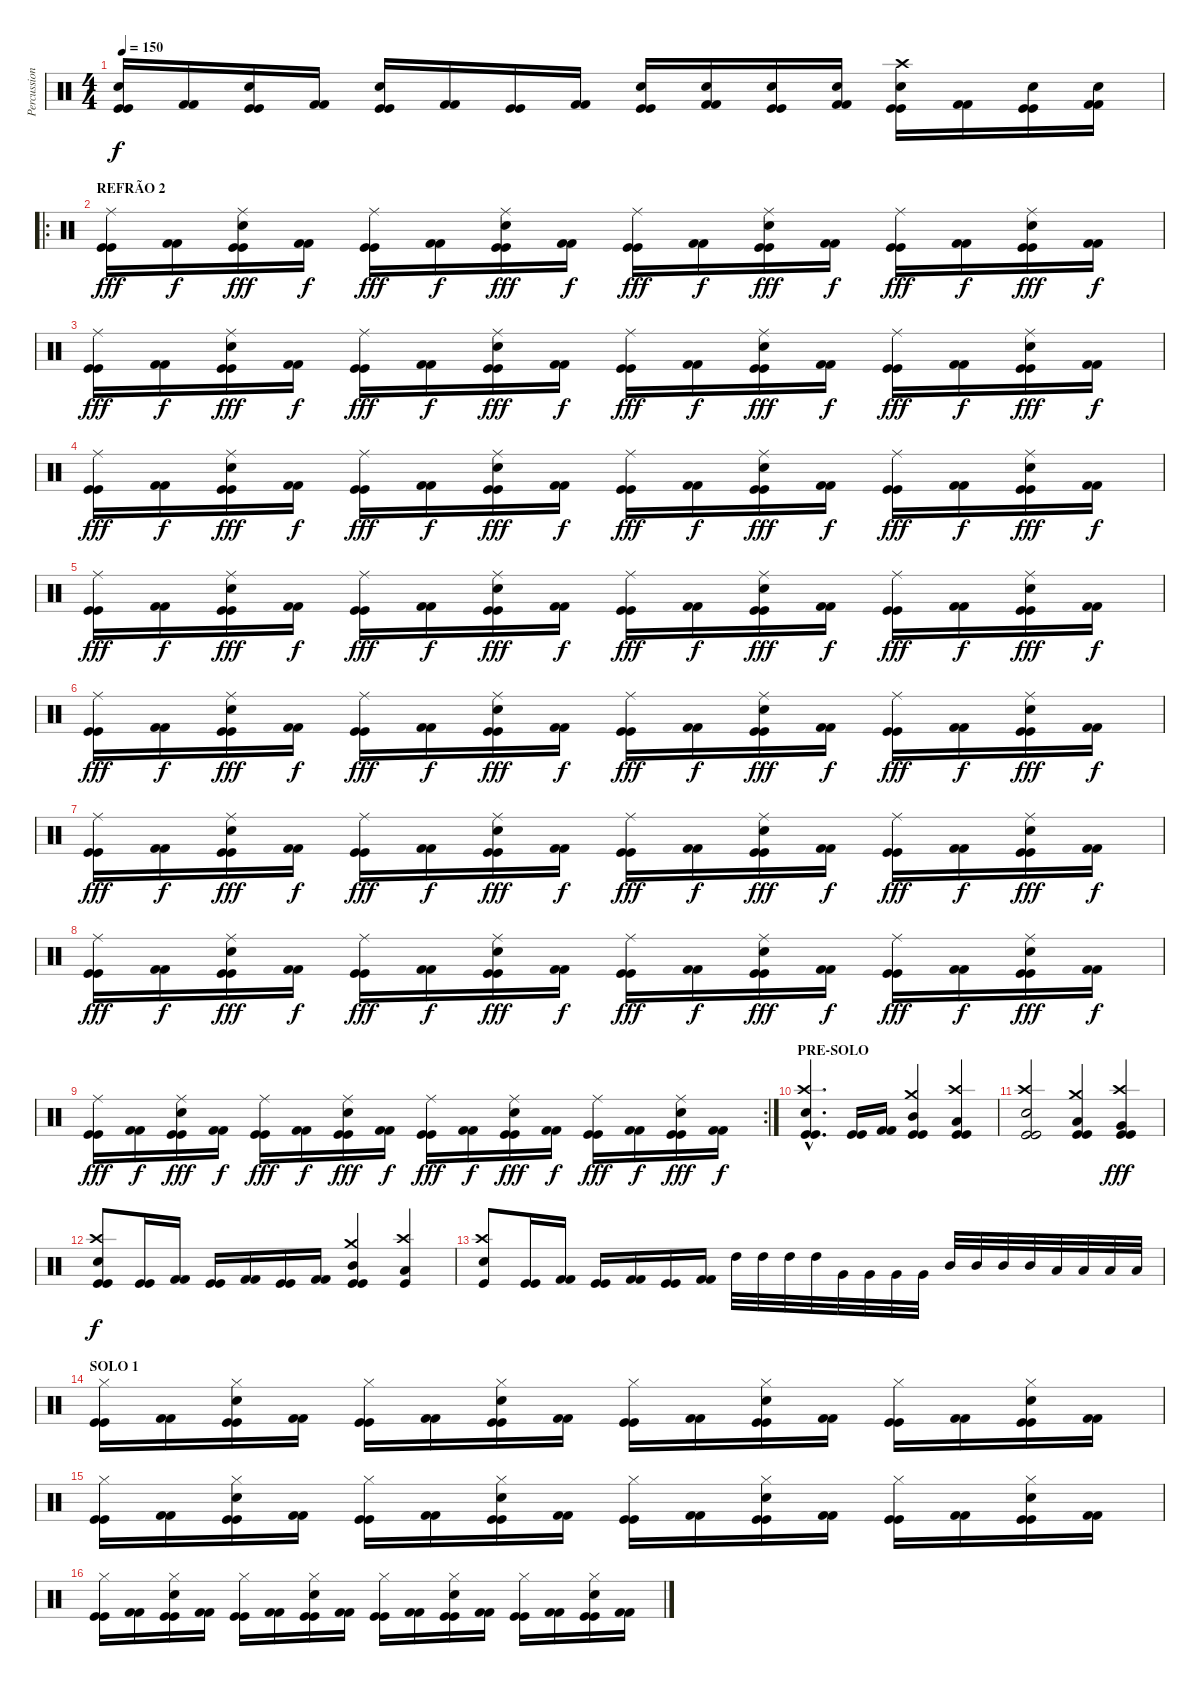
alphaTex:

\track ("Percussion" "Percussion") {instrument percussion}
\staff {score}
\articulation defaults
\ts (4 4)
\tempo 150
\clef neutral
\ks c
("Electric Snare (hit)" "Kick (hit)" "Kick (hit)").16{dy f} ("Kick (hit) 2" "Kick (hit) 2").16 ("Electric Snare (hit)" "Kick (hit)" "Kick (hit)").16 ("Kick (hit) 2" "Kick (hit) 2").16 ("Electric Snare (hit)" "Kick (hit)" "Kick (hit)").16 ("Kick (hit) 2" "Kick (hit) 2").16 ("Kick (hit)" "Kick (hit)").16 ("Kick (hit) 2" "Kick (hit) 2").16 ("Electric Snare (hit)" "Kick (hit)" "Kick (hit)").16 ("Electric Snare (hit)" "Kick (hit) 2" "Kick (hit) 2").16 ("Electric Snare (hit)" "Kick (hit)" "Kick (hit)").16 ("Electric Snare (hit)" "Kick (hit) 2" "Kick (hit) 2").16 ("Crash high (hit)" "Electric Snare (hit)" "Kick (hit)" "Kick (hit)").16 ("Kick (hit) 2" "Kick (hit) 2").16 ("Electric Snare (hit)" "Kick (hit)" "Kick (hit)").16 ("Electric Snare (hit)" "Kick (hit) 2" "Kick (hit) 2").16 |
\ro
\section ("" "REFRÃO 2")
("Ride (middle)" "Kick (hit)" "Kick (hit)").16{dy fff} ("Kick (hit) 2" "Kick (hit) 2").16{dy f} ("Ride (middle)" "Electric Snare (hit)" "Kick (hit)" "Kick (hit)").16{dy fff} ("Kick (hit) 2" "Kick (hit) 2").16{dy f} ("Ride (middle)" "Kick (hit)" "Kick (hit)").16{dy fff} ("Kick (hit) 2" "Kick (hit) 2").16{dy f} ("Ride (middle)" "Electric Snare (hit)" "Kick (hit)" "Kick (hit)").16{dy fff} ("Kick (hit) 2" "Kick (hit) 2").16{dy f} ("Ride (middle)" "Kick (hit)" "Kick (hit)").16{dy fff} ("Kick (hit) 2" "Kick (hit) 2").16{dy f} ("Ride (middle)" "Electric Snare (hit)" "Kick (hit)" "Kick (hit)").16{dy fff} ("Kick (hit) 2" "Kick (hit) 2").16{dy f} ("Ride (middle)" "Kick (hit)" "Kick (hit)").16{dy fff} ("Kick (hit) 2" "Kick (hit) 2").16{dy f} ("Ride (middle)" "Electric Snare (hit)" "Kick (hit)" "Kick (hit)").16{dy fff} ("Kick (hit) 2" "Kick (hit) 2").16{dy f} |
("Ride (middle)" "Kick (hit)" "Kick (hit)").16{dy fff} ("Kick (hit) 2" "Kick (hit) 2").16{dy f} ("Ride (middle)" "Electric Snare (hit)" "Kick (hit)" "Kick (hit)").16{dy fff} ("Kick (hit) 2" "Kick (hit) 2").16{dy f} ("Ride (middle)" "Kick (hit)" "Kick (hit)").16{dy fff} ("Kick (hit) 2" "Kick (hit) 2").16{dy f} ("Ride (middle)" "Electric Snare (hit)" "Kick (hit)" "Kick (hit)").16{dy fff} ("Kick (hit) 2" "Kick (hit) 2").16{dy f} ("Ride (middle)" "Kick (hit)" "Kick (hit)").16{dy fff} ("Kick (hit) 2" "Kick (hit) 2").16{dy f} ("Ride (middle)" "Electric Snare (hit)" "Kick (hit)" "Kick (hit)").16{dy fff} ("Kick (hit) 2" "Kick (hit) 2").16{dy f} ("Ride (middle)" "Kick (hit)" "Kick (hit)").16{dy fff} ("Kick (hit) 2" "Kick (hit) 2").16{dy f} ("Ride (middle)" "Electric Snare (hit)" "Kick (hit)" "Kick (hit)").16{dy fff} ("Kick (hit) 2" "Kick (hit) 2").16{dy f} |
("Ride (middle)" "Kick (hit)" "Kick (hit)").16{dy fff} ("Kick (hit) 2" "Kick (hit) 2").16{dy f} ("Ride (middle)" "Electric Snare (hit)" "Kick (hit)" "Kick (hit)").16{dy fff} ("Kick (hit) 2" "Kick (hit) 2").16{dy f} ("Ride (middle)" "Kick (hit)" "Kick (hit)").16{dy fff} ("Kick (hit) 2" "Kick (hit) 2").16{dy f} ("Ride (middle)" "Electric Snare (hit)" "Kick (hit)" "Kick (hit)").16{dy fff} ("Kick (hit) 2" "Kick (hit) 2").16{dy f} ("Ride (middle)" "Kick (hit)" "Kick (hit)").16{dy fff} ("Kick (hit) 2" "Kick (hit) 2").16{dy f} ("Ride (middle)" "Electric Snare (hit)" "Kick (hit)" "Kick (hit)").16{dy fff} ("Kick (hit) 2" "Kick (hit) 2").16{dy f} ("Ride (middle)" "Kick (hit)" "Kick (hit)").16{dy fff} ("Kick (hit) 2" "Kick (hit) 2").16{dy f} ("Ride (middle)" "Electric Snare (hit)" "Kick (hit)" "Kick (hit)").16{dy fff} ("Kick (hit) 2" "Kick (hit) 2").16{dy f} |
("Ride (middle)" "Kick (hit)" "Kick (hit)").16{dy fff} ("Kick (hit) 2" "Kick (hit) 2").16{dy f} ("Ride (middle)" "Electric Snare (hit)" "Kick (hit)" "Kick (hit)").16{dy fff} ("Kick (hit) 2" "Kick (hit) 2").16{dy f} ("Ride (middle)" "Kick (hit)" "Kick (hit)").16{dy fff} ("Kick (hit) 2" "Kick (hit) 2").16{dy f} ("Ride (middle)" "Electric Snare (hit)" "Kick (hit)" "Kick (hit)").16{dy fff} ("Kick (hit) 2" "Kick (hit) 2").16{dy f} ("Ride (middle)" "Kick (hit)" "Kick (hit)").16{dy fff} ("Kick (hit) 2" "Kick (hit) 2").16{dy f} ("Ride (middle)" "Electric Snare (hit)" "Kick (hit)" "Kick (hit)").16{dy fff} ("Kick (hit) 2" "Kick (hit) 2").16{dy f} ("Ride (middle)" "Kick (hit)" "Kick (hit)").16{dy fff} ("Kick (hit) 2" "Kick (hit) 2").16{dy f} ("Ride (middle)" "Electric Snare (hit)" "Kick (hit)" "Kick (hit)").16{dy fff} ("Kick (hit) 2" "Kick (hit) 2").16{dy f} |
("Ride (middle)" "Kick (hit)" "Kick (hit)").16{dy fff} ("Kick (hit) 2" "Kick (hit) 2").16{dy f} ("Ride (middle)" "Electric Snare (hit)" "Kick (hit)" "Kick (hit)").16{dy fff} ("Kick (hit) 2" "Kick (hit) 2").16{dy f} ("Ride (middle)" "Kick (hit)" "Kick (hit)").16{dy fff} ("Kick (hit) 2" "Kick (hit) 2").16{dy f} ("Ride (middle)" "Electric Snare (hit)" "Kick (hit)" "Kick (hit)").16{dy fff} ("Kick (hit) 2" "Kick (hit) 2").16{dy f} ("Ride (middle)" "Kick (hit)" "Kick (hit)").16{dy fff} ("Kick (hit) 2" "Kick (hit) 2").16{dy f} ("Ride (middle)" "Electric Snare (hit)" "Kick (hit)" "Kick (hit)").16{dy fff} ("Kick (hit) 2" "Kick (hit) 2").16{dy f} ("Ride (middle)" "Kick (hit)" "Kick (hit)").16{dy fff} ("Kick (hit) 2" "Kick (hit) 2").16{dy f} ("Ride (middle)" "Electric Snare (hit)" "Kick (hit)" "Kick (hit)").16{dy fff} ("Kick (hit) 2" "Kick (hit) 2").16{dy f} |
("Ride (middle)" "Kick (hit)" "Kick (hit)").16{dy fff} ("Kick (hit) 2" "Kick (hit) 2").16{dy f} ("Ride (middle)" "Electric Snare (hit)" "Kick (hit)" "Kick (hit)").16{dy fff} ("Kick (hit) 2" "Kick (hit) 2").16{dy f} ("Ride (middle)" "Kick (hit)" "Kick (hit)").16{dy fff} ("Kick (hit) 2" "Kick (hit) 2").16{dy f} ("Ride (middle)" "Electric Snare (hit)" "Kick (hit)" "Kick (hit)").16{dy fff} ("Kick (hit) 2" "Kick (hit) 2").16{dy f} ("Ride (middle)" "Kick (hit)" "Kick (hit)").16{dy fff} ("Kick (hit) 2" "Kick (hit) 2").16{dy f} ("Ride (middle)" "Electric Snare (hit)" "Kick (hit)" "Kick (hit)").16{dy fff} ("Kick (hit) 2" "Kick (hit) 2").16{dy f} ("Ride (middle)" "Kick (hit)" "Kick (hit)").16{dy fff} ("Kick (hit) 2" "Kick (hit) 2").16{dy f} ("Ride (middle)" "Electric Snare (hit)" "Kick (hit)" "Kick (hit)").16{dy fff} ("Kick (hit) 2" "Kick (hit) 2").16{dy f} |
("Ride (middle)" "Kick (hit)" "Kick (hit)").16{dy fff} ("Kick (hit) 2" "Kick (hit) 2").16{dy f} ("Ride (middle)" "Electric Snare (hit)" "Kick (hit)" "Kick (hit)").16{dy fff} ("Kick (hit) 2" "Kick (hit) 2").16{dy f} ("Ride (middle)" "Kick (hit)" "Kick (hit)").16{dy fff} ("Kick (hit) 2" "Kick (hit) 2").16{dy f} ("Ride (middle)" "Electric Snare (hit)" "Kick (hit)" "Kick (hit)").16{dy fff} ("Kick (hit) 2" "Kick (hit) 2").16{dy f} ("Ride (middle)" "Kick (hit)" "Kick (hit)").16{dy fff} ("Kick (hit) 2" "Kick (hit) 2").16{dy f} ("Ride (middle)" "Electric Snare (hit)" "Kick (hit)" "Kick (hit)").16{dy fff} ("Kick (hit) 2" "Kick (hit) 2").16{dy f} ("Ride (middle)" "Kick (hit)" "Kick (hit)").16{dy fff} ("Kick (hit) 2" "Kick (hit) 2").16{dy f} ("Ride (middle)" "Electric Snare (hit)" "Kick (hit)" "Kick (hit)").16{dy fff} ("Kick (hit) 2" "Kick (hit) 2").16{dy f} |
\rc 2
("Ride (middle)" "Kick (hit)" "Kick (hit)").16{dy fff} ("Kick (hit) 2" "Kick (hit) 2").16{dy f} ("Ride (middle)" "Electric Snare (hit)" "Kick (hit)" "Kick (hit)").16{dy fff} ("Kick (hit) 2" "Kick (hit) 2").16{dy f} ("Ride (middle)" "Kick (hit)" "Kick (hit)").16{dy fff} ("Kick (hit) 2" "Kick (hit) 2").16{dy f} ("Ride (middle)" "Electric Snare (hit)" "Kick (hit)" "Kick (hit)").16{dy fff} ("Kick (hit) 2" "Kick (hit) 2").16{dy f} ("Ride (middle)" "Kick (hit)" "Kick (hit)").16{dy fff} ("Kick (hit) 2" "Kick (hit) 2").16{dy f} ("Ride (middle)" "Electric Snare (hit)" "Kick (hit)" "Kick (hit)").16{dy fff} ("Kick (hit) 2" "Kick (hit) 2").16{dy f} ("Ride (middle)" "Kick (hit)" "Kick (hit)").16{dy fff} ("Kick (hit) 2" "Kick (hit) 2").16{dy f} ("Ride (middle)" "Electric Snare (hit)" "Kick (hit)" "Kick (hit)").16{dy fff} ("Kick (hit) 2" "Kick (hit) 2").16{dy f} |
\section ("" "PRE-SOLO")
("Crash high (hit)"{hac} "Snare (hit) 2"{hac} "Kick (hit)"{hac} "Kick (hit)"{hac}).4{d} ("Kick (hit)" "Kick (hit)").16 ("Kick (hit) 2" "Kick (hit) 2").16 ("Crash medium (hit)" "Mid Tom (hit)" "Kick (hit)" "Kick (hit)").4 ("Crash high (hit)" "Low Tom (hit)" "Kick (hit)" "Kick (hit)").4 |
("Crash high (hit)" "Snare (hit) 2" "Kick (hit)" "Kick (hit)").2 ("Crash medium (hit)" "Low Tom (hit)" "Kick (hit)" "Kick (hit)").4 ("Crash high (hit)" "Very Low Tom (hit)" "Kick (hit)" "Kick (hit)").4{dy fff} |
("Crash high (hit)" "Snare (hit) 2" "Kick (hit)" "Kick (hit)").8{dy f} ("Kick (hit)" "Kick (hit)").16 ("Kick (hit) 2" "Kick (hit) 2").16 ("Kick (hit)" "Kick (hit)").16 ("Kick (hit) 2" "Kick (hit) 2").16 ("Kick (hit)" "Kick (hit)").16 ("Kick (hit) 2" "Kick (hit) 2").16 ("Crash medium (hit)" "Mid Tom (hit)" "Kick (hit)" "Kick (hit)").4 ("Crash high (hit)" "Low Tom (hit)" "Kick (hit)").4 |
("Crash high (hit)" "Snare (hit) 2" "Kick (hit)").8 ("Kick (hit)" "Kick (hit)").16 ("Kick (hit) 2" "Kick (hit) 2").16 ("Kick (hit)" "Kick (hit)").16 ("Kick (hit) 2" "Kick (hit) 2").16 ("Kick (hit)" "Kick (hit)").16 ("Kick (hit) 2" "Kick (hit) 2").16 "High Tom (hit)".32 "High Tom (hit)".32 "High Tom (hit)".32 "High Tom (hit)".32 "Very Low Tom (hit)".32 "Very Low Tom (hit)".32 "Very Low Tom (hit)".32 "Very Low Tom (hit)".32 "Mid Tom (hit)".32 "Mid Tom (hit)".32 "Mid Tom (hit)".32 "Mid Tom (hit)".32 "Low Tom (hit)".32 "Low Tom (hit)".32 "Low Tom (hit)".32 "Low Tom (hit)".32 |
\section ("" "SOLO 1")
("Hi-Hat (closed)" "Kick (hit)" "Kick (hit)").16 ("Kick (hit) 2" "Kick (hit) 2").16 ("Hi-Hat (closed)" "Electric Snare (hit)" "Kick (hit)" "Kick (hit)").16 ("Kick (hit) 2" "Kick (hit) 2").16 ("Hi-Hat (closed)" "Kick (hit)" "Kick (hit)").16 ("Kick (hit) 2" "Kick (hit) 2").16 ("Hi-Hat (closed)" "Electric Snare (hit)" "Kick (hit)" "Kick (hit)").16 ("Kick (hit) 2" "Kick (hit) 2").16 ("Hi-Hat (closed)" "Kick (hit)" "Kick (hit)").16 ("Kick (hit) 2" "Kick (hit) 2").16 ("Hi-Hat (closed)" "Electric Snare (hit)" "Kick (hit)" "Kick (hit)").16 ("Kick (hit) 2" "Kick (hit) 2").16 ("Hi-Hat (closed)" "Kick (hit)" "Kick (hit)").16 ("Kick (hit) 2" "Kick (hit) 2").16 ("Hi-Hat (closed)" "Electric Snare (hit)" "Kick (hit)" "Kick (hit)").16 ("Kick (hit) 2" "Kick (hit) 2").16 |
("Hi-Hat (closed)" "Kick (hit)" "Kick (hit)").16 ("Kick (hit) 2" "Kick (hit) 2").16 ("Hi-Hat (closed)" "Electric Snare (hit)" "Kick (hit)" "Kick (hit)").16 ("Kick (hit) 2" "Kick (hit) 2").16 ("Hi-Hat (closed)" "Kick (hit)" "Kick (hit)").16 ("Kick (hit) 2" "Kick (hit) 2").16 ("Hi-Hat (closed)" "Electric Snare (hit)" "Kick (hit)" "Kick (hit)").16 ("Kick (hit) 2" "Kick (hit) 2").16 ("Hi-Hat (closed)" "Kick (hit)" "Kick (hit)").16 ("Kick (hit) 2" "Kick (hit) 2").16 ("Hi-Hat (closed)" "Electric Snare (hit)" "Kick (hit)" "Kick (hit)").16 ("Kick (hit) 2" "Kick (hit) 2").16 ("Hi-Hat (closed)" "Kick (hit)" "Kick (hit)").16 ("Kick (hit) 2" "Kick (hit) 2").16 ("Hi-Hat (closed)" "Electric Snare (hit)" "Kick (hit)" "Kick (hit)").16 ("Kick (hit) 2" "Kick (hit) 2").16 |
("Hi-Hat (closed)" "Kick (hit)" "Kick (hit)").16 ("Kick (hit) 2" "Kick (hit) 2").16 ("Hi-Hat (closed)" "Electric Snare (hit)" "Kick (hit)" "Kick (hit)").16 ("Kick (hit) 2" "Kick (hit) 2").16 ("Hi-Hat (closed)" "Kick (hit)" "Kick (hit)").16 ("Kick (hit) 2" "Kick (hit) 2").16 ("Hi-Hat (closed)" "Electric Snare (hit)" "Kick (hit)" "Kick (hit)").16 ("Kick (hit) 2" "Kick (hit) 2").16 ("Hi-Hat (closed)" "Kick (hit)" "Kick (hit)").16 ("Kick (hit) 2" "Kick (hit) 2").16 ("Hi-Hat (closed)" "Electric Snare (hit)" "Kick (hit)" "Kick (hit)").16 ("Kick (hit) 2" "Kick (hit) 2").16 ("Hi-Hat (closed)" "Kick (hit)" "Kick (hit)").16 ("Kick (hit) 2" "Kick (hit) 2").16 ("Hi-Hat (closed)" "Electric Snare (hit)" "Kick (hit)" "Kick (hit)").16 ("Kick (hit) 2" "Kick (hit) 2").16
